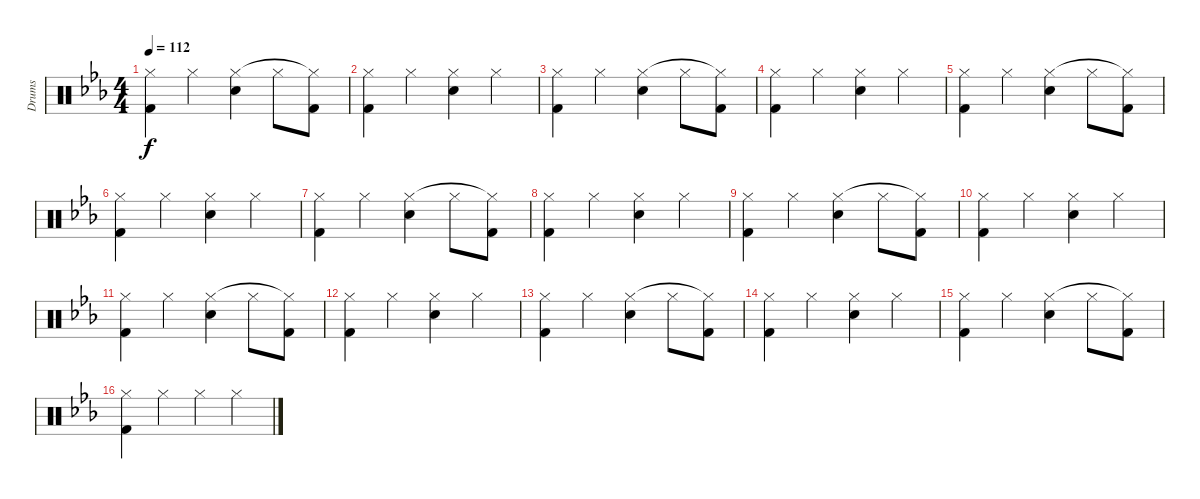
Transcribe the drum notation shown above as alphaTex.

\track ("Drums" "Drums") {instrument percussion}
\staff {score}
\articulation defaults
\ts (4 4)
\tempo 112
\clef neutral
\ks eb
("Kick (hit) 2" "Hi-Hat (closed)").4{dy f} "Hi-Hat (closed)".4 ("Snare (hit) 2" "Hi-Hat (closed)").4 "Hi-Hat (closed)".8 ("Kick (hit) 2" "Hi-Hat (closed)"{t}).8 |
("Kick (hit) 2" "Hi-Hat (closed)").4 "Hi-Hat (closed)".4 ("Snare (hit) 2" "Hi-Hat (closed)").4 "Hi-Hat (closed)".4 |
("Kick (hit) 2" "Hi-Hat (closed)").4 "Hi-Hat (closed)".4 ("Snare (hit) 2" "Hi-Hat (closed)").4 "Hi-Hat (closed)".8 ("Kick (hit) 2" "Hi-Hat (closed)"{t}).8 |
("Kick (hit) 2" "Hi-Hat (closed)").4 "Hi-Hat (closed)".4 ("Snare (hit) 2" "Hi-Hat (closed)").4 "Hi-Hat (closed)".4 |
("Kick (hit) 2" "Hi-Hat (closed)").4 "Hi-Hat (closed)".4 ("Snare (hit) 2" "Hi-Hat (closed)").4 "Hi-Hat (closed)".8 ("Kick (hit) 2" "Hi-Hat (closed)"{t}).8 |
("Kick (hit) 2" "Hi-Hat (closed)").4 "Hi-Hat (closed)".4 ("Snare (hit) 2" "Hi-Hat (closed)").4 "Hi-Hat (closed)".4 |
("Kick (hit) 2" "Hi-Hat (closed)").4 "Hi-Hat (closed)".4 ("Snare (hit) 2" "Hi-Hat (closed)").4 "Hi-Hat (closed)".8 ("Kick (hit) 2" "Hi-Hat (closed)"{t}).8 |
("Kick (hit) 2" "Hi-Hat (closed)").4 "Hi-Hat (closed)".4 ("Snare (hit) 2" "Hi-Hat (closed)").4 "Hi-Hat (closed)".4 |
("Kick (hit) 2" "Hi-Hat (closed)").4 "Hi-Hat (closed)".4 ("Snare (hit) 2" "Hi-Hat (closed)").4 "Hi-Hat (closed)".8 ("Kick (hit) 2" "Hi-Hat (closed)"{t}).8 |
("Kick (hit) 2" "Hi-Hat (closed)").4 "Hi-Hat (closed)".4 ("Snare (hit) 2" "Hi-Hat (closed)").4 "Hi-Hat (closed)".4 |
("Kick (hit) 2" "Hi-Hat (closed)").4 "Hi-Hat (closed)".4 ("Snare (hit) 2" "Hi-Hat (closed)").4 "Hi-Hat (closed)".8 ("Kick (hit) 2" "Hi-Hat (closed)"{t}).8 |
("Kick (hit) 2" "Hi-Hat (closed)").4 "Hi-Hat (closed)".4 ("Snare (hit) 2" "Hi-Hat (closed)").4 "Hi-Hat (closed)".4 |
("Kick (hit) 2" "Hi-Hat (closed)").4 "Hi-Hat (closed)".4 ("Snare (hit) 2" "Hi-Hat (closed)").4 "Hi-Hat (closed)".8 ("Kick (hit) 2" "Hi-Hat (closed)"{t}).8 |
("Kick (hit) 2" "Hi-Hat (closed)").4 "Hi-Hat (closed)".4 ("Snare (hit) 2" "Hi-Hat (closed)").4 "Hi-Hat (closed)".4 |
("Kick (hit) 2" "Hi-Hat (closed)").4 "Hi-Hat (closed)".4 ("Snare (hit) 2" "Hi-Hat (closed)").4 "Hi-Hat (closed)".8 ("Kick (hit) 2" "Hi-Hat (closed)"{t}).8 |
("Kick (hit) 2" "Hi-Hat (closed)").4 "Hi-Hat (closed)".4 "Hi-Hat (closed)".4 "Hi-Hat (closed)".4
